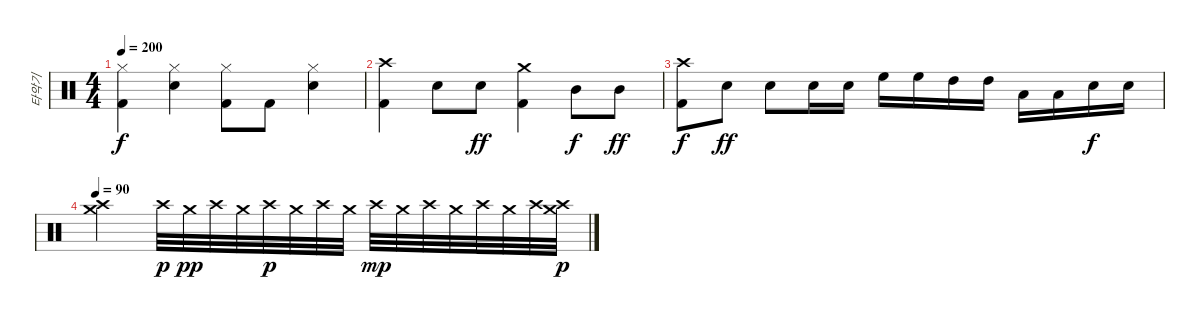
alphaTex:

\track ("타악기" "타악기") {instrument percussion}
\staff {score}
\articulation defaults
\ts (4 4)
\tempo 200
\clef neutral
\ks c
("Hi-Hat (closed)" "Kick (hit) 2").4{dy f} ("Hi-Hat (closed)" "Snare (hit) 2").4 ("Hi-Hat (closed)" "Kick (hit) 2").8 "Kick (hit) 2".8 ("Hi-Hat (closed)" "Snare (hit) 2").4 |
("Crash high (hit)" "Kick (hit) 2").4 "Snare (hit) 2".8 "Snare (hit) 2".8{dy ff} ("Crash medium (hit)" "Kick (hit) 2").4 "Mid Tom (hit)".8{dy f} "Mid Tom (hit)".8{dy ff} |
("Crash high (hit)" "Kick (hit) 2").8{dy f} "Snare (hit) 2".8{dy ff} "Snare (hit) 2".8 "Snare (hit) 2".16 "Snare (hit) 2".16 "High Floor Tom (hit)".16 "High Floor Tom (hit)".16 "High Tom (hit)".16 "High Tom (hit)".16 "Low Tom (hit)".16 "Low Tom (hit)".16 "Snare (hit) 2".16{dy f} "Snare (hit) 2".16 |
\tempo 90
("Crash high (hit)" "Crash medium (hit)").2 "Crash high (hit)".32{dy p} "Crash medium (hit)".32{dy pp} "Crash high (hit)".32 "Crash medium (hit)".32 "Crash high (hit)".32{dy p} "Crash medium (hit)".32 "Crash high (hit)".32 "Crash medium (hit)".32 "Crash high (hit)".32{dy mp} "Crash medium (hit)".32 "Crash high (hit)".32 "Crash medium (hit)".32 "Crash high (hit)".32 "Crash medium (hit)".32 "Crash high (hit)".32 ("Crash medium (hit)" "Crash high (hit)").32{dy p}
